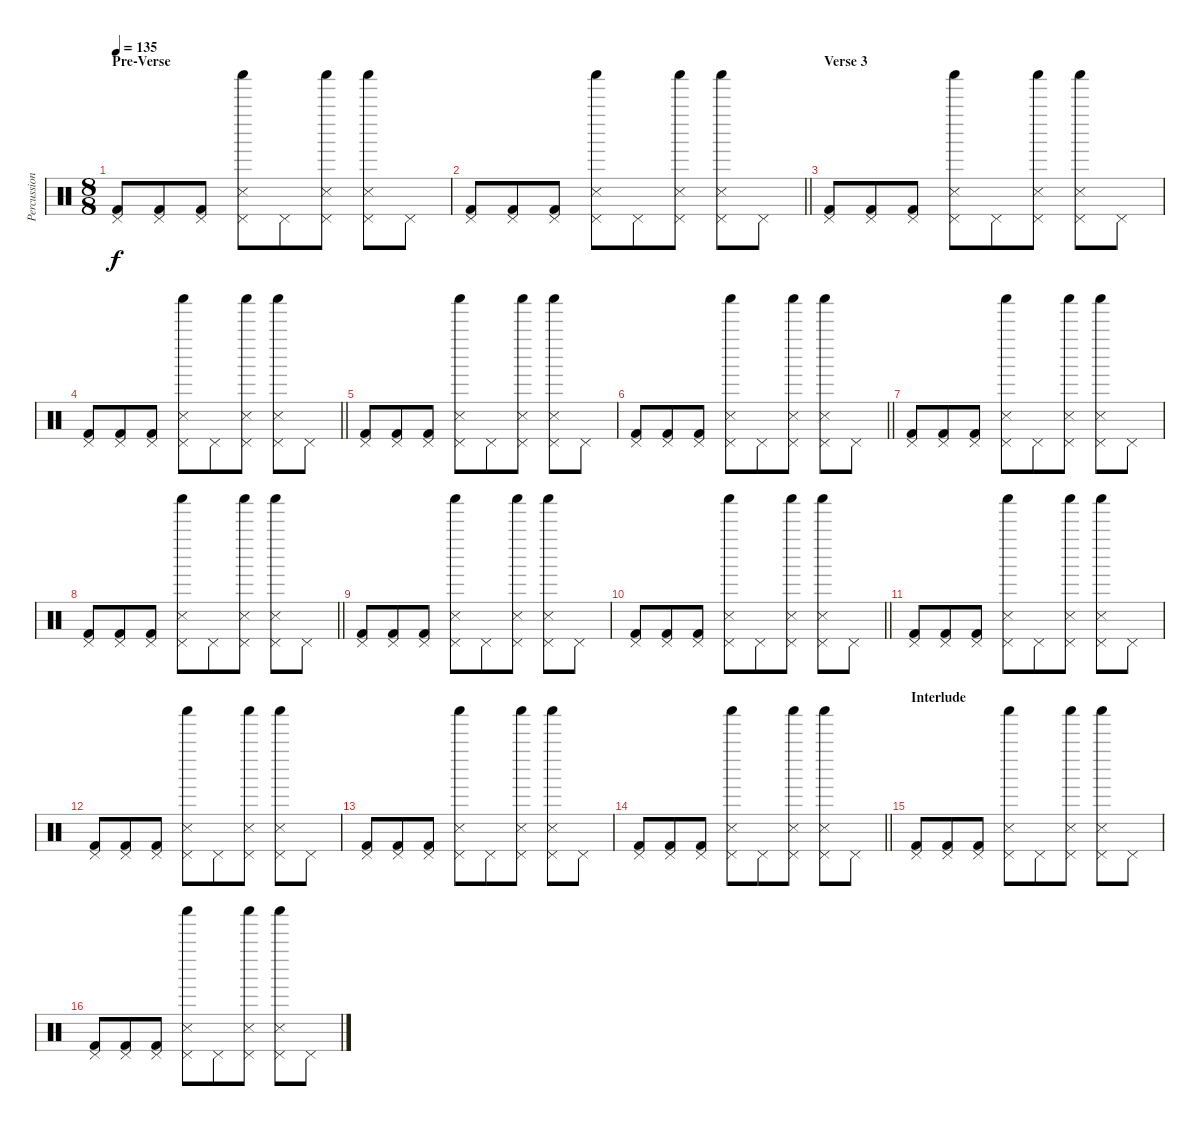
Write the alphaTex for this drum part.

\track ("Percussion" "Percussion") {instrument percussion}
\staff {score}
\articulation defaults
\ts (8 8)
\section ("" "Pre-Verse")
\tempo 135
\clef neutral
\ks c
("Kick (hit) 2" "Pedal Hi-Hat (hit)").8{dy f} ("Kick (hit) 2" "Pedal Hi-Hat (hit)").8 ("Kick (hit) 2" "Pedal Hi-Hat (hit)").8 ("Metronome (hit)" "Shaker (hit)" "Pedal Hi-Hat (hit)").8 "Pedal Hi-Hat (hit)".8 ("Metronome (hit)" "Shaker (hit)" "Pedal Hi-Hat (hit)").8 ("Metronome (hit)" "Shaker (hit)" "Pedal Hi-Hat (hit)").8 "Pedal Hi-Hat (hit)".8 |
\barLineRight lightlight
("Kick (hit) 2" "Pedal Hi-Hat (hit)").8 ("Kick (hit) 2" "Pedal Hi-Hat (hit)").8 ("Kick (hit) 2" "Pedal Hi-Hat (hit)").8 ("Metronome (hit)" "Shaker (hit)" "Pedal Hi-Hat (hit)").8 "Pedal Hi-Hat (hit)".8 ("Metronome (hit)" "Shaker (hit)" "Pedal Hi-Hat (hit)").8 ("Metronome (hit)" "Shaker (hit)" "Pedal Hi-Hat (hit)").8 "Pedal Hi-Hat (hit)".8 |
\section ("" "Verse 3")
("Kick (hit) 2" "Pedal Hi-Hat (hit)").8 ("Kick (hit) 2" "Pedal Hi-Hat (hit)").8 ("Kick (hit) 2" "Pedal Hi-Hat (hit)").8 ("Metronome (hit)" "Shaker (hit)" "Pedal Hi-Hat (hit)").8 "Pedal Hi-Hat (hit)".8 ("Metronome (hit)" "Shaker (hit)" "Pedal Hi-Hat (hit)").8 ("Metronome (hit)" "Shaker (hit)" "Pedal Hi-Hat (hit)").8 "Pedal Hi-Hat (hit)".8 |
\barLineRight lightlight
("Kick (hit) 2" "Pedal Hi-Hat (hit)").8 ("Kick (hit) 2" "Pedal Hi-Hat (hit)").8 ("Kick (hit) 2" "Pedal Hi-Hat (hit)").8 ("Metronome (hit)" "Shaker (hit)" "Pedal Hi-Hat (hit)").8 "Pedal Hi-Hat (hit)".8 ("Metronome (hit)" "Shaker (hit)" "Pedal Hi-Hat (hit)").8 ("Metronome (hit)" "Shaker (hit)" "Pedal Hi-Hat (hit)").8 "Pedal Hi-Hat (hit)".8 |
("Kick (hit) 2" "Pedal Hi-Hat (hit)").8 ("Kick (hit) 2" "Pedal Hi-Hat (hit)").8 ("Kick (hit) 2" "Pedal Hi-Hat (hit)").8 ("Metronome (hit)" "Shaker (hit)" "Pedal Hi-Hat (hit)").8 "Pedal Hi-Hat (hit)".8 ("Metronome (hit)" "Shaker (hit)" "Pedal Hi-Hat (hit)").8 ("Metronome (hit)" "Shaker (hit)" "Pedal Hi-Hat (hit)").8 "Pedal Hi-Hat (hit)".8 |
\barLineRight lightlight
("Kick (hit) 2" "Pedal Hi-Hat (hit)").8 ("Kick (hit) 2" "Pedal Hi-Hat (hit)").8 ("Kick (hit) 2" "Pedal Hi-Hat (hit)").8 ("Metronome (hit)" "Shaker (hit)" "Pedal Hi-Hat (hit)").8 "Pedal Hi-Hat (hit)".8 ("Metronome (hit)" "Shaker (hit)" "Pedal Hi-Hat (hit)").8 ("Metronome (hit)" "Shaker (hit)" "Pedal Hi-Hat (hit)").8 "Pedal Hi-Hat (hit)".8 |
("Kick (hit) 2" "Pedal Hi-Hat (hit)").8 ("Kick (hit) 2" "Pedal Hi-Hat (hit)").8 ("Kick (hit) 2" "Pedal Hi-Hat (hit)").8 ("Metronome (hit)" "Shaker (hit)" "Pedal Hi-Hat (hit)").8 "Pedal Hi-Hat (hit)".8 ("Metronome (hit)" "Shaker (hit)" "Pedal Hi-Hat (hit)").8 ("Metronome (hit)" "Shaker (hit)" "Pedal Hi-Hat (hit)").8 "Pedal Hi-Hat (hit)".8 |
\barLineRight lightlight
("Kick (hit) 2" "Pedal Hi-Hat (hit)").8 ("Kick (hit) 2" "Pedal Hi-Hat (hit)").8 ("Kick (hit) 2" "Pedal Hi-Hat (hit)").8 ("Metronome (hit)" "Shaker (hit)" "Pedal Hi-Hat (hit)").8 "Pedal Hi-Hat (hit)".8 ("Metronome (hit)" "Shaker (hit)" "Pedal Hi-Hat (hit)").8 ("Metronome (hit)" "Shaker (hit)" "Pedal Hi-Hat (hit)").8 "Pedal Hi-Hat (hit)".8 |
("Kick (hit) 2" "Pedal Hi-Hat (hit)").8 ("Kick (hit) 2" "Pedal Hi-Hat (hit)").8 ("Kick (hit) 2" "Pedal Hi-Hat (hit)").8 ("Metronome (hit)" "Shaker (hit)" "Pedal Hi-Hat (hit)").8 "Pedal Hi-Hat (hit)".8 ("Metronome (hit)" "Shaker (hit)" "Pedal Hi-Hat (hit)").8 ("Metronome (hit)" "Shaker (hit)" "Pedal Hi-Hat (hit)").8 "Pedal Hi-Hat (hit)".8 |
\barLineRight lightlight
("Kick (hit) 2" "Pedal Hi-Hat (hit)").8 ("Kick (hit) 2" "Pedal Hi-Hat (hit)").8 ("Kick (hit) 2" "Pedal Hi-Hat (hit)").8 ("Metronome (hit)" "Shaker (hit)" "Pedal Hi-Hat (hit)").8 "Pedal Hi-Hat (hit)".8 ("Metronome (hit)" "Shaker (hit)" "Pedal Hi-Hat (hit)").8 ("Metronome (hit)" "Shaker (hit)" "Pedal Hi-Hat (hit)").8 "Pedal Hi-Hat (hit)".8 |
("Kick (hit) 2" "Pedal Hi-Hat (hit)").8 ("Kick (hit) 2" "Pedal Hi-Hat (hit)").8 ("Kick (hit) 2" "Pedal Hi-Hat (hit)").8 ("Metronome (hit)" "Shaker (hit)" "Pedal Hi-Hat (hit)").8 "Pedal Hi-Hat (hit)".8 ("Metronome (hit)" "Shaker (hit)" "Pedal Hi-Hat (hit)").8 ("Metronome (hit)" "Shaker (hit)" "Pedal Hi-Hat (hit)").8 "Pedal Hi-Hat (hit)".8 |
("Kick (hit) 2" "Pedal Hi-Hat (hit)").8 ("Kick (hit) 2" "Pedal Hi-Hat (hit)").8 ("Kick (hit) 2" "Pedal Hi-Hat (hit)").8 ("Metronome (hit)" "Shaker (hit)" "Pedal Hi-Hat (hit)").8 "Pedal Hi-Hat (hit)".8 ("Metronome (hit)" "Shaker (hit)" "Pedal Hi-Hat (hit)").8 ("Metronome (hit)" "Shaker (hit)" "Pedal Hi-Hat (hit)").8 "Pedal Hi-Hat (hit)".8 |
("Kick (hit) 2" "Pedal Hi-Hat (hit)").8 ("Kick (hit) 2" "Pedal Hi-Hat (hit)").8 ("Kick (hit) 2" "Pedal Hi-Hat (hit)").8 ("Metronome (hit)" "Shaker (hit)" "Pedal Hi-Hat (hit)").8 "Pedal Hi-Hat (hit)".8 ("Metronome (hit)" "Shaker (hit)" "Pedal Hi-Hat (hit)").8 ("Metronome (hit)" "Shaker (hit)" "Pedal Hi-Hat (hit)").8 "Pedal Hi-Hat (hit)".8 |
\barLineRight lightlight
("Kick (hit) 2" "Pedal Hi-Hat (hit)").8 ("Kick (hit) 2" "Pedal Hi-Hat (hit)").8 ("Kick (hit) 2" "Pedal Hi-Hat (hit)").8 ("Metronome (hit)" "Shaker (hit)" "Pedal Hi-Hat (hit)").8 "Pedal Hi-Hat (hit)".8 ("Metronome (hit)" "Shaker (hit)" "Pedal Hi-Hat (hit)").8 ("Metronome (hit)" "Shaker (hit)" "Pedal Hi-Hat (hit)").8 "Pedal Hi-Hat (hit)".8 |
\section ("" "Interlude")
("Kick (hit) 2" "Pedal Hi-Hat (hit)").8 ("Kick (hit) 2" "Pedal Hi-Hat (hit)").8 ("Kick (hit) 2" "Pedal Hi-Hat (hit)").8 ("Metronome (hit)" "Shaker (hit)" "Pedal Hi-Hat (hit)").8 "Pedal Hi-Hat (hit)".8 ("Metronome (hit)" "Shaker (hit)" "Pedal Hi-Hat (hit)").8 ("Metronome (hit)" "Shaker (hit)" "Pedal Hi-Hat (hit)").8 "Pedal Hi-Hat (hit)".8 |
("Kick (hit) 2" "Pedal Hi-Hat (hit)").8 ("Kick (hit) 2" "Pedal Hi-Hat (hit)").8 ("Kick (hit) 2" "Pedal Hi-Hat (hit)").8 ("Metronome (hit)" "Shaker (hit)" "Pedal Hi-Hat (hit)").8 "Pedal Hi-Hat (hit)".8 ("Metronome (hit)" "Shaker (hit)" "Pedal Hi-Hat (hit)").8 ("Metronome (hit)" "Shaker (hit)" "Pedal Hi-Hat (hit)").8 "Pedal Hi-Hat (hit)".8
